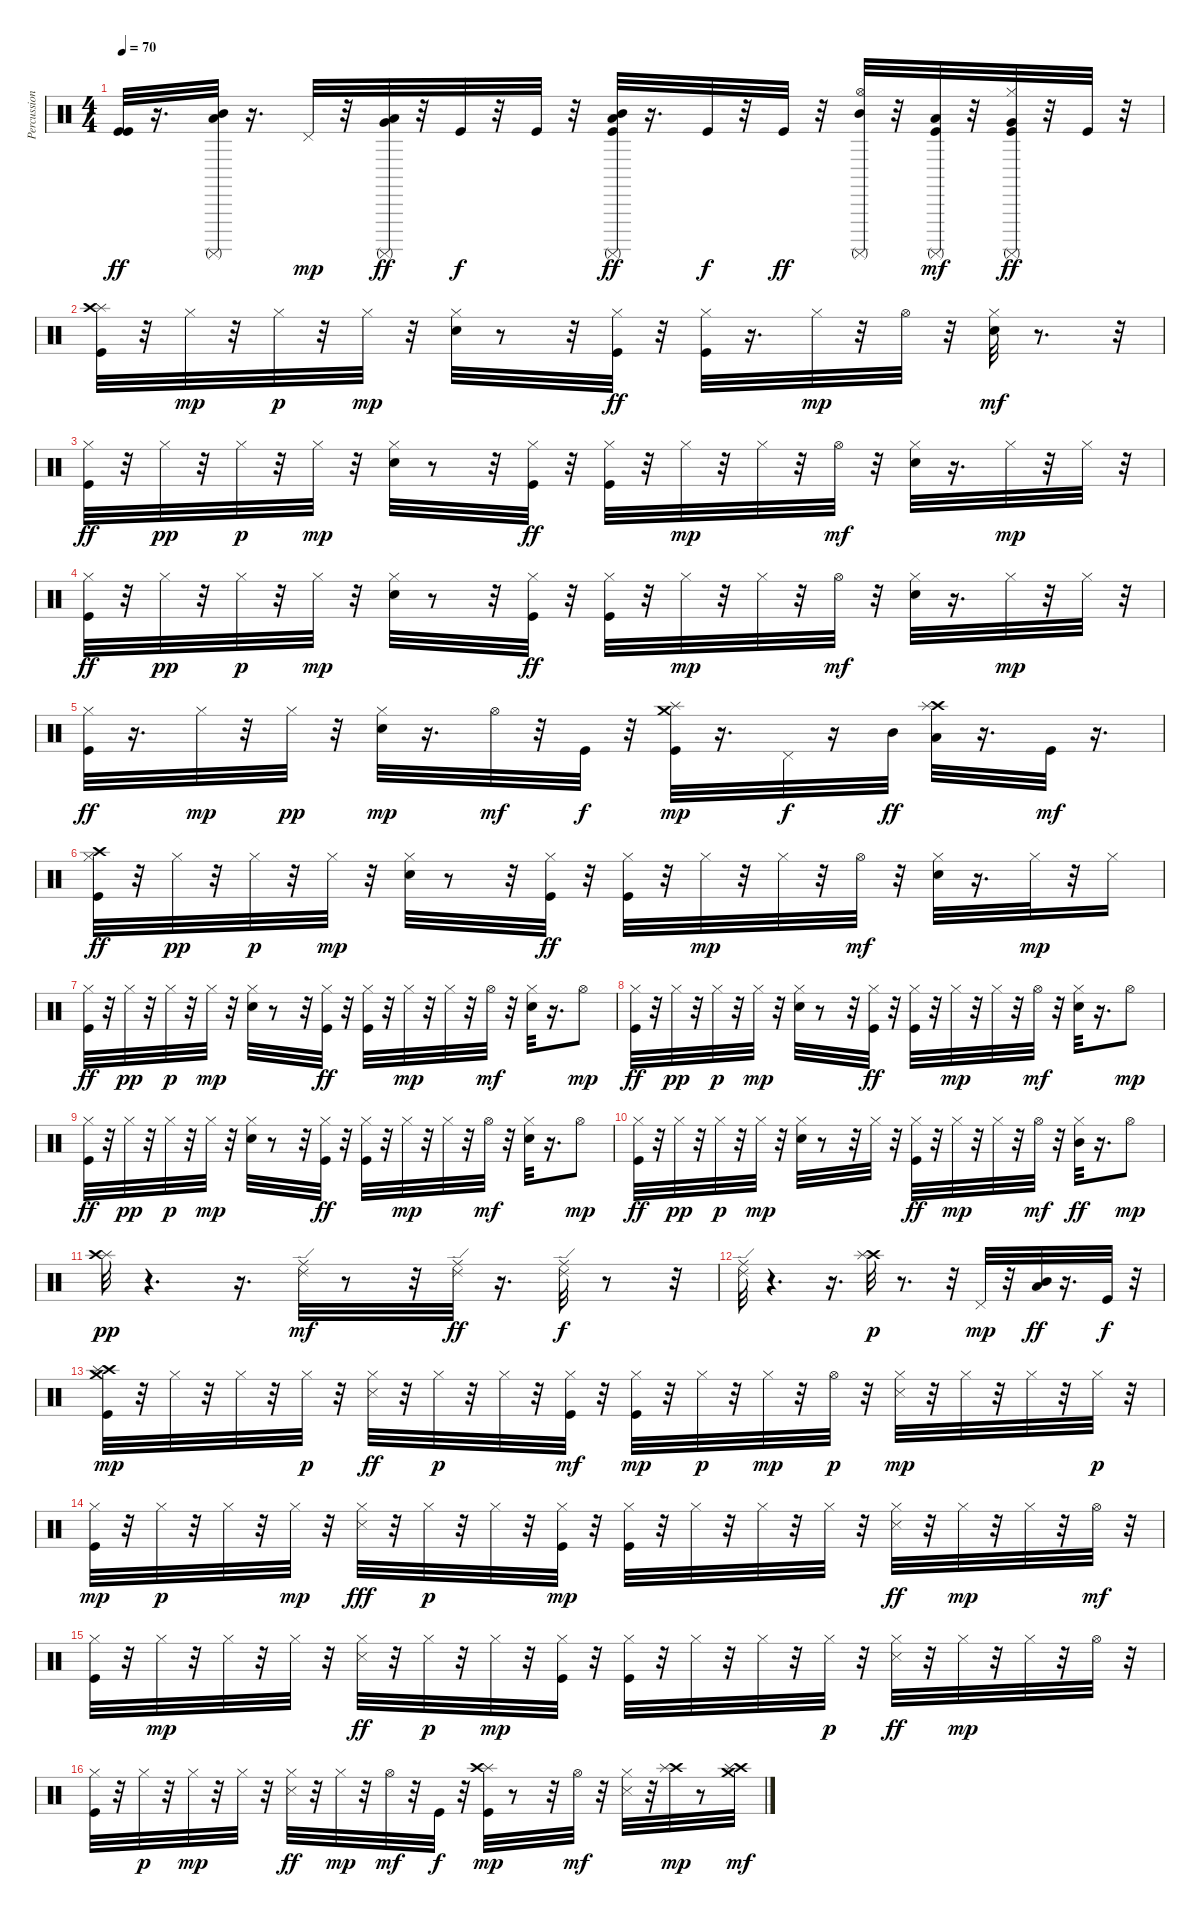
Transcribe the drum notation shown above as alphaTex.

\track ("Percussion" "Percussion") {instrument percussion}
\staff {score}
\articulation defaults
\ts (4 4)
\tempo 70
\clef neutral
\ks c
("Kick (hit)" "Kick (hit)").32{dy ff} r.16{d} ("Mid Tom (hit)" "Low Tom (hit)" "Surdo (mute)").32 r.16{d} "Pedal Hi-Hat (hit)".32{dy mp} r.32 ("Low Tom (hit)" "Very Low Tom (hit)" "Surdo (mute)").32{dy ff} r.32 "Kick (hit)".32{dy f} r.32 "Kick (hit)".32 r.32 ("Kick (hit)" "Mid Tom (hit)" "Low Tom (hit)" "Surdo (mute)").32{dy ff} r.16{d} "Kick (hit)".32{dy f} r.32 "Kick (hit)".32{dy ff} r.32 ("Hi-Hat (open)" "Mid Tom (hit)" "Surdo (mute)").32 r.32 ("Low Tom (hit)" "Kick (hit)" "Surdo (mute)").32{dy mf} r.32 ("Kick (hit)" "Hi-Hat (closed)" "Very Low Tom (hit)" "Surdo (mute)").32{dy ff} r.32 "Kick (hit)".32 r.32 |
("Splash (hit)" "Crash high (hit)" "Kick (hit)").32 r.32 "Hi-Hat (closed)".32{dy mp} r.32 "Hi-Hat (closed)".32{dy p} r.32 "Hi-Hat (closed)".32{dy mp} r.32 ("Hi-Hat (closed)" "Snare (hit) 2").32 r.8 r.32 ("Hi-Hat (closed)" "Kick (hit)").32{dy ff} r.32 ("Hi-Hat (closed)" "Kick (hit)").32 r.16{d} "Hi-Hat (closed)".32{dy mp} r.32 "Hi-Hat (open)".32 r.32 ("Hi-Hat (closed)" "Snare (hit) 2").32{dy mf} r.8{d} r.32 |
("Hi-Hat (closed)" "Kick (hit)").32{dy ff} r.32 "Hi-Hat (closed)".32{dy pp} r.32 "Hi-Hat (closed)".32{dy p} r.32 "Hi-Hat (closed)".32{dy mp} r.32 ("Hi-Hat (closed)" "Snare (hit) 2").32 r.8 r.32 ("Hi-Hat (closed)" "Kick (hit)").32{dy ff} r.32 ("Hi-Hat (closed)" "Kick (hit)").32 r.32 "Hi-Hat (closed)".32{dy mp} r.32 "Hi-Hat (closed)".32 r.32 "Hi-Hat (open)".32{dy mf} r.32 ("Hi-Hat (closed)" "Snare (hit) 2").32 r.16{d} "Hi-Hat (closed)".32{dy mp} r.32 "Hi-Hat (closed)".32 r.32 |
("Hi-Hat (closed)" "Kick (hit)").32{dy ff} r.32 "Hi-Hat (closed)".32{dy pp} r.32 "Hi-Hat (closed)".32{dy p} r.32 "Hi-Hat (closed)".32{dy mp} r.32 ("Hi-Hat (closed)" "Snare (hit) 2").32 r.8 r.32 ("Hi-Hat (closed)" "Kick (hit)").32{dy ff} r.32 ("Hi-Hat (closed)" "Kick (hit)").32 r.32 "Hi-Hat (closed)".32{dy mp} r.32 "Hi-Hat (closed)".32 r.32 "Hi-Hat (open)".32{dy mf} r.32 ("Hi-Hat (closed)" "Snare (hit) 2").32 r.16{d} "Hi-Hat (closed)".32{dy mp} r.32 "Hi-Hat (closed)".32 r.32 |
("Hi-Hat (closed)" "Kick (hit)").32{dy ff} r.16{d} "Hi-Hat (closed)".32{dy mp} r.32 "Hi-Hat (closed)".32{dy pp} r.32 ("Hi-Hat (closed)" "Snare (hit) 2").32{dy mp} r.16{d} "Hi-Hat (open)".32{dy mf} r.32 "Kick (hit)".32{dy f} r.32 ("Kick (hit)" "Crash medium (hit)" "Splash (hit)").32{dy mp} r.16{d} "Pedal Hi-Hat (hit)".32{dy f} r.16 "Mid Tom (hit)".32{dy ff} ("Crash high (hit)" "Splash (hit)" "Low Tom (hit)").32 r.16{d} "Kick (hit)".32{dy mf} r.16{d} |
("Hi-Hat (closed)" "Kick (hit)" "Crash high (hit)").32{dy ff} r.32 "Hi-Hat (closed)".32{dy pp} r.32 "Hi-Hat (closed)".32{dy p} r.32 "Hi-Hat (closed)".32{dy mp} r.32 ("Hi-Hat (closed)" "Snare (hit) 2").32 r.8 r.32 ("Hi-Hat (closed)" "Kick (hit)").32{dy ff} r.32 ("Hi-Hat (closed)" "Kick (hit)").32 r.32 "Hi-Hat (closed)".32{dy mp} r.32 "Hi-Hat (closed)".32 r.32 "Hi-Hat (open)".32{dy mf} r.32 ("Hi-Hat (closed)" "Snare (hit) 2").32 r.16{d} "Hi-Hat (closed)".32{dy mp} r.32 "Hi-Hat (closed)".16 |
("Hi-Hat (closed)" "Kick (hit)").32{dy ff} r.32 "Hi-Hat (closed)".32{dy pp} r.32 "Hi-Hat (closed)".32{dy p} r.32 "Hi-Hat (closed)".32{dy mp} r.32 ("Hi-Hat (closed)" "Snare (hit) 2").32 r.8 r.32 ("Hi-Hat (closed)" "Kick (hit)").32{dy ff} r.32 ("Hi-Hat (closed)" "Kick (hit)").32 r.32 "Hi-Hat (closed)".32{dy mp} r.32 "Hi-Hat (closed)".32 r.32 "Hi-Hat (open)".32{dy mf} r.32 ("Hi-Hat (closed)" "Snare (hit) 2").32 r.16{d} "Hi-Hat (open)".8{dy mp} |
("Hi-Hat (closed)" "Kick (hit)").32{dy ff} r.32 "Hi-Hat (closed)".32{dy pp} r.32 "Hi-Hat (closed)".32{dy p} r.32 "Hi-Hat (closed)".32{dy mp} r.32 ("Hi-Hat (closed)" "Snare (hit) 2").32 r.8 r.32 ("Hi-Hat (closed)" "Kick (hit)").32{dy ff} r.32 ("Hi-Hat (closed)" "Kick (hit)").32 r.32 "Hi-Hat (closed)".32{dy mp} r.32 "Hi-Hat (closed)".32 r.32 "Hi-Hat (open)".32{dy mf} r.32 ("Hi-Hat (closed)" "Snare (hit) 2").32 r.16{d} "Hi-Hat (open)".8{dy mp} |
("Hi-Hat (closed)" "Kick (hit)").32{dy ff} r.32 "Hi-Hat (closed)".32{dy pp} r.32 "Hi-Hat (closed)".32{dy p} r.32 "Hi-Hat (closed)".32{dy mp} r.32 ("Hi-Hat (closed)" "Snare (hit) 2").32 r.8 r.32 ("Hi-Hat (closed)" "Kick (hit)").32{dy ff} r.32 ("Hi-Hat (closed)" "Kick (hit)").32 r.32 "Hi-Hat (closed)".32{dy mp} r.32 "Hi-Hat (closed)".32 r.32 "Hi-Hat (open)".32{dy mf} r.32 ("Hi-Hat (closed)" "Snare (hit) 2").32 r.16{d} "Hi-Hat (open)".8{dy mp} |
("Hi-Hat (closed)" "Kick (hit)").32{dy ff} r.32 "Hi-Hat (closed)".32{dy pp} r.32 "Hi-Hat (closed)".32{dy p} r.32 "Hi-Hat (closed)".32{dy mp} r.32 ("Hi-Hat (closed)" "Snare (hit) 2").32 r.8 r.32 "Hi-Hat (closed)".32 r.32 ("Hi-Hat (closed)" "Kick (hit)").32{dy ff} r.32 "Hi-Hat (closed)".32{dy mp} r.32 "Hi-Hat (closed)".32 r.32 "Hi-Hat (open)".32{dy mf} r.32 ("Hi-Hat (closed)" "Mid Tom (hit)").32{dy ff} r.16{d} "Hi-Hat (open)".8{dy mp} |
("Splash (hit)" "Crash high (hit)").32{dy pp} r.4{d} r.16{d} ("Ride (middle)" "Ride (edge) 2").32{dy mf} r.8 r.32 ("Ride (middle)" "Ride (edge) 2").32{dy ff} r.16{d} ("Ride (middle)" "Ride (edge) 2").32{dy f} r.8 r.32 |
("Ride (middle)" "Ride (edge) 2").32 r.4{d} r.16{d} ("Crash high (hit)" "Splash (hit)").32{dy p} r.8{d} r.32 "Pedal Hi-Hat (hit)".32{dy mp} r.32 ("Mid Tom (hit)" "Low Tom (hit)").32{dy ff} r.16{d} "Kick (hit)".32{dy f} r.32 |
("Crash high (hit)" "Splash (hit)" "Crash medium (hit)" "Kick (hit)").32{dy mp} r.32 "Hi-Hat (closed)".32 r.32 "Hi-Hat (closed)".32 r.32 "Hi-Hat (closed)".32{dy p} r.32 ("Hi-Hat (closed)" "Snare (side stick) 3").32{dy ff} r.32 "Hi-Hat (closed)".32{dy p} r.32 "Hi-Hat (closed)".32 r.32 ("Hi-Hat (closed)" "Kick (hit)").32{dy mf} r.32 ("Hi-Hat (closed)" "Kick (hit)").32{dy mp} r.32 "Hi-Hat (closed)".32{dy p} r.32 "Hi-Hat (closed)".32{dy mp} r.32 "Hi-Hat (open)".32{dy p} r.32 ("Snare (side stick) 3" "Hi-Hat (closed)").32{dy mp} r.32 "Hi-Hat (closed)".32 r.32 "Hi-Hat (closed)".32 r.32 "Hi-Hat (closed)".32{dy p} r.32 |
("Hi-Hat (closed)" "Kick (hit)").32{dy mp} r.32 "Hi-Hat (closed)".32{dy p} r.32 "Hi-Hat (closed)".32 r.32 "Hi-Hat (closed)".32{dy mp} r.32 ("Hi-Hat (closed)" "Snare (side stick) 3").32{dy fff} r.32 "Hi-Hat (closed)".32{dy p} r.32 "Hi-Hat (closed)".32 r.32 ("Hi-Hat (closed)" "Kick (hit)").32{dy mp} r.32 ("Hi-Hat (closed)" "Kick (hit)").32 r.32 "Hi-Hat (closed)".32 r.32 "Hi-Hat (closed)".32 r.32 "Hi-Hat (closed)".32 r.32 ("Hi-Hat (closed)" "Snare (side stick) 3").32{dy ff} r.32 "Hi-Hat (closed)".32{dy mp} r.32 "Hi-Hat (closed)".32 r.32 "Hi-Hat (open)".32{dy mf} r.32 |
("Hi-Hat (closed)" "Kick (hit)").32 r.32 "Hi-Hat (closed)".32{dy mp} r.32 "Hi-Hat (closed)".32 r.32 "Hi-Hat (closed)".32 r.32 ("Hi-Hat (closed)" "Snare (side stick) 3").32{dy ff} r.32 "Hi-Hat (closed)".32{dy p} r.32 "Hi-Hat (closed)".32{dy mp} r.32 ("Hi-Hat (closed)" "Kick (hit)").32 r.32 ("Hi-Hat (closed)" "Kick (hit)").32 r.32 "Hi-Hat (closed)".32 r.32 "Hi-Hat (closed)".32 r.32 "Hi-Hat (closed)".32{dy p} r.32 ("Hi-Hat (closed)" "Snare (side stick) 3").32{dy ff} r.32 "Hi-Hat (closed)".32{dy mp} r.32 "Hi-Hat (closed)".32 r.32 "Hi-Hat (open)".32 r.32 |
("Kick (hit)" "Hi-Hat (closed)").32 r.32 "Hi-Hat (closed)".32{dy p} r.32 "Hi-Hat (closed)".32{dy mp} r.32 "Hi-Hat (closed)".32 r.32 ("Hi-Hat (closed)" "Snare (side stick) 3").32{dy ff} r.32 "Hi-Hat (closed)".32{dy mp} r.32 "Hi-Hat (open)".32{dy mf} r.32 "Kick (hit)".32{dy f} r.32 ("Kick (hit)" "Splash (hit)" "Crash high (hit)").32{dy mp} r.8 r.32 "Hi-Hat (open)".32{dy mf} r.32 ("Snare (side stick) 3" "Hi-Hat (closed)").32 r.32 ("Crash high (hit)" "Splash (hit)").32{dy mp} r.8 ("Crash medium (hit)" "Crash high (hit)" "Splash (hit)").32{dy mf}
